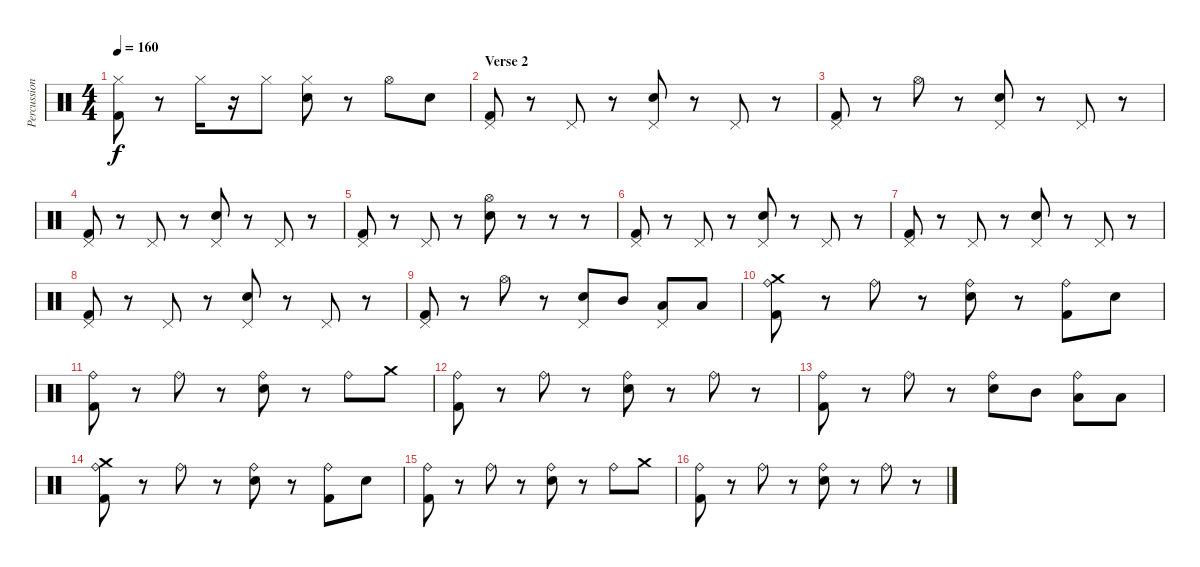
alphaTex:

\track ("Percussion" "Percussion") {instrument percussion}
\staff {score}
\articulation defaults
\ts (4 4)
\tempo 160
\clef neutral
\ks c
("Hi-Hat (closed)" "Kick (hit) 2").8{dy f} r.8 "Hi-Hat (closed)".16 r.16 "Hi-Hat (closed)".8 ("Electric Snare (hit)" "Hi-Hat (closed)").8 r.8 "Hi-Hat (open)".8 "Electric Snare (hit)".8 |
\section ("" "Verse 2")
("Pedal Hi-Hat (hit)" "Kick (hit) 2").8 r.8 "Pedal Hi-Hat (hit)".8 r.8 ("Pedal Hi-Hat (hit)" "Electric Snare (hit)").8 r.8 "Pedal Hi-Hat (hit)".8 r.8 |
("Pedal Hi-Hat (hit)" "Kick (hit) 2").8 r.8 "Hi-Hat (open)".8 r.8 ("Pedal Hi-Hat (hit)" "Electric Snare (hit)").8 r.8 "Pedal Hi-Hat (hit)".8 r.8 |
("Pedal Hi-Hat (hit)" "Kick (hit) 2").8 r.8 "Pedal Hi-Hat (hit)".8 r.8 ("Pedal Hi-Hat (hit)" "Electric Snare (hit)").8 r.8 "Pedal Hi-Hat (hit)".8 r.8 |
("Pedal Hi-Hat (hit)" "Kick (hit) 2").8 r.8 "Pedal Hi-Hat (hit)".8 r.8 ("Hi-Hat (open)" "Electric Snare (hit)").8 r.8 r.8 r.8 |
("Pedal Hi-Hat (hit)" "Kick (hit) 2").8 r.8 "Pedal Hi-Hat (hit)".8 r.8 ("Pedal Hi-Hat (hit)" "Electric Snare (hit)").8 r.8 "Pedal Hi-Hat (hit)".8 r.8 |
("Pedal Hi-Hat (hit)" "Kick (hit) 2").8 r.8 "Pedal Hi-Hat (hit)".8 r.8 ("Pedal Hi-Hat (hit)" "Electric Snare (hit)").8 r.8 "Pedal Hi-Hat (hit)".8 r.8 |
("Pedal Hi-Hat (hit)" "Kick (hit) 2").8 r.8 "Pedal Hi-Hat (hit)".8 r.8 ("Pedal Hi-Hat (hit)" "Electric Snare (hit)").8 r.8 "Pedal Hi-Hat (hit)".8 r.8 |
("Pedal Hi-Hat (hit)" "Kick (hit) 2").8 r.8 "Hi-Hat (open)".8 r.8 ("Pedal Hi-Hat (hit)" "Electric Snare (hit)").8 "Mid Tom (hit)".8 ("Low Tom (hit)" "Pedal Hi-Hat (hit)").8 "Low Floor Tom (hit)".8 |
("Crash medium (hit)" "Ride (bell)" "Kick (hit) 2").8 r.8 "Ride (bell)".8 r.8 ("Ride (bell)" "Electric Snare (hit)").8 r.8 ("Kick (hit) 2" "Ride (bell)").8 "Electric Snare (hit)".8 |
("Ride (bell)" "Kick (hit) 2").8 r.8 "Ride (bell)".8 r.8 ("Ride (bell)" "Electric Snare (hit)").8 r.8 "Ride (bell)".8 "Crash medium (hit)".8 |
("Ride (bell)" "Kick (hit) 2").8 r.8 "Ride (bell)".8 r.8 ("Ride (bell)" "Electric Snare (hit)").8 r.8 "Ride (bell)".8 r.8 |
("Ride (bell)" "Kick (hit) 2").8 r.8 "Ride (bell)".8 r.8 ("Ride (bell)" "Electric Snare (hit)").8 "Mid Tom (hit)".8 ("Low Tom (hit)" "Ride (bell)").8 "Low Floor Tom (hit)".8 |
("Crash medium (hit)" "Ride (bell)" "Kick (hit) 2").8 r.8 "Ride (bell)".8 r.8 ("Ride (bell)" "Electric Snare (hit)").8 r.8 ("Kick (hit) 2" "Ride (bell)").8 "Electric Snare (hit)".8 |
("Ride (bell)" "Kick (hit) 2").8 r.8 "Ride (bell)".8 r.8 ("Ride (bell)" "Electric Snare (hit)").8 r.8 "Ride (bell)".8 "Crash medium (hit)".8 |
("Ride (bell)" "Kick (hit) 2").8 r.8 "Ride (bell)".8 r.8 ("Ride (bell)" "Electric Snare (hit)").8 r.8 "Ride (bell)".8 r.8
